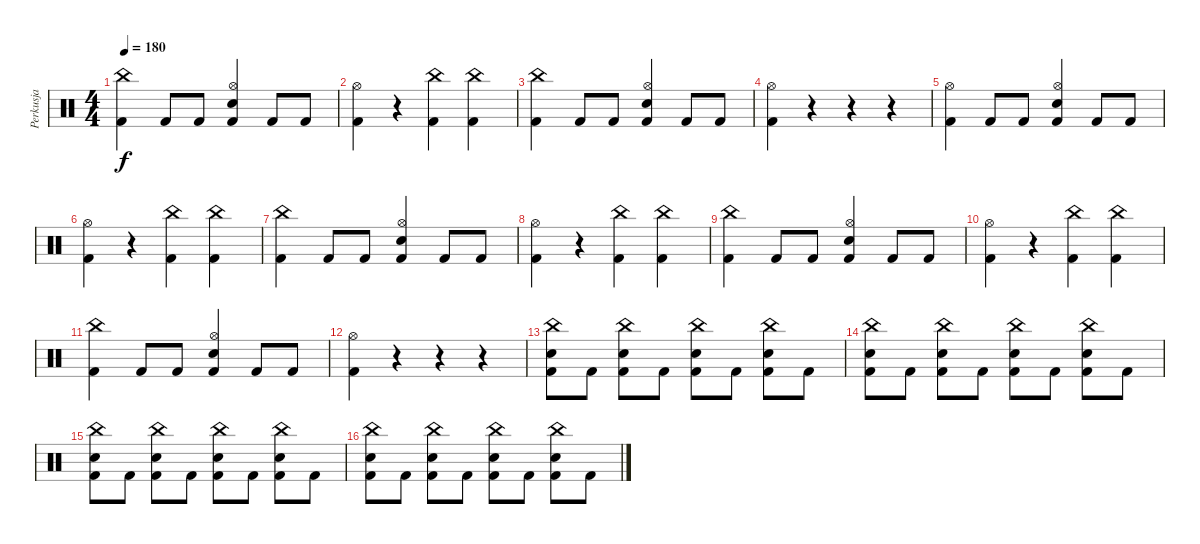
\track ("Perkusja" "Perkusja") {instrument percussion}
\staff {score}
\articulation defaults
\ts (4 4)
\tempo 180
\clef neutral
\ks c
("China (hit)" "Kick (hit) 2").4{dy f} "Kick (hit) 2".8 "Kick (hit) 2".8 ("Hi-Hat (open)" "Snare (hit) 2" "Kick (hit) 2").4 "Kick (hit) 2".8 "Kick (hit) 2".8 |
("Hi-Hat (open)" "Kick (hit) 2").4 r.4 ("China (hit)" "Kick (hit) 2").4 ("China (hit)" "Kick (hit) 2").4 |
("China (hit)" "Kick (hit) 2").4 "Kick (hit) 2".8 "Kick (hit) 2".8 ("Hi-Hat (open)" "Snare (hit) 2" "Kick (hit) 2").4 "Kick (hit) 2".8 "Kick (hit) 2".8 |
("Hi-Hat (open)" "Kick (hit) 2").4 r.4 r.4 r.4 |
("Hi-Hat (open)" "Kick (hit) 2").4 "Kick (hit) 2".8 "Kick (hit) 2".8 ("Hi-Hat (open)" "Snare (hit) 2" "Kick (hit) 2").4 "Kick (hit) 2".8 "Kick (hit) 2".8 |
("Hi-Hat (open)" "Kick (hit) 2").4 r.4 ("China (hit)" "Kick (hit) 2").4 ("China (hit)" "Kick (hit) 2").4 |
("China (hit)" "Kick (hit) 2").4 "Kick (hit) 2".8 "Kick (hit) 2".8 ("Hi-Hat (open)" "Snare (hit) 2" "Kick (hit) 2").4 "Kick (hit) 2".8 "Kick (hit) 2".8 |
("Hi-Hat (open)" "Kick (hit) 2").4 r.4 ("China (hit)" "Kick (hit) 2").4 ("China (hit)" "Kick (hit) 2").4 |
("China (hit)" "Kick (hit) 2").4 "Kick (hit) 2".8 "Kick (hit) 2".8 ("Hi-Hat (open)" "Snare (hit) 2" "Kick (hit) 2").4 "Kick (hit) 2".8 "Kick (hit) 2".8 |
("Hi-Hat (open)" "Kick (hit) 2").4 r.4 ("China (hit)" "Kick (hit) 2").4 ("China (hit)" "Kick (hit) 2").4 |
("China (hit)" "Kick (hit) 2").4 "Kick (hit) 2".8 "Kick (hit) 2".8 ("Hi-Hat (open)" "Snare (hit) 2" "Kick (hit) 2").4 "Kick (hit) 2".8 "Kick (hit) 2".8 |
("Hi-Hat (open)" "Kick (hit) 2").4 r.4 r.4 r.4 |
("China (hit)" "Snare (hit) 2" "Kick (hit) 2").8 "Kick (hit) 2".8 ("China (hit)" "Snare (hit) 2" "Kick (hit) 2").8 "Kick (hit) 2".8 ("China (hit)" "Snare (hit) 2" "Kick (hit) 2").8 "Kick (hit) 2".8 ("China (hit)" "Snare (hit) 2" "Kick (hit) 2").8 "Kick (hit) 2".8 |
("China (hit)" "Snare (hit) 2" "Kick (hit) 2").8 "Kick (hit) 2".8 ("China (hit)" "Snare (hit) 2" "Kick (hit) 2").8 "Kick (hit) 2".8 ("China (hit)" "Snare (hit) 2" "Kick (hit) 2").8 "Kick (hit) 2".8 ("China (hit)" "Snare (hit) 2" "Kick (hit) 2").8 "Kick (hit) 2".8 |
("China (hit)" "Snare (hit) 2" "Kick (hit) 2").8 "Kick (hit) 2".8 ("China (hit)" "Snare (hit) 2" "Kick (hit) 2").8 "Kick (hit) 2".8 ("China (hit)" "Snare (hit) 2" "Kick (hit) 2").8 "Kick (hit) 2".8 ("China (hit)" "Snare (hit) 2" "Kick (hit) 2").8 "Kick (hit) 2".8 |
("China (hit)" "Snare (hit) 2" "Kick (hit) 2").8 "Kick (hit) 2".8 ("China (hit)" "Snare (hit) 2" "Kick (hit) 2").8 "Kick (hit) 2".8 ("China (hit)" "Snare (hit) 2" "Kick (hit) 2").8 "Kick (hit) 2".8 ("China (hit)" "Snare (hit) 2" "Kick (hit) 2").8 "Kick (hit) 2".8
